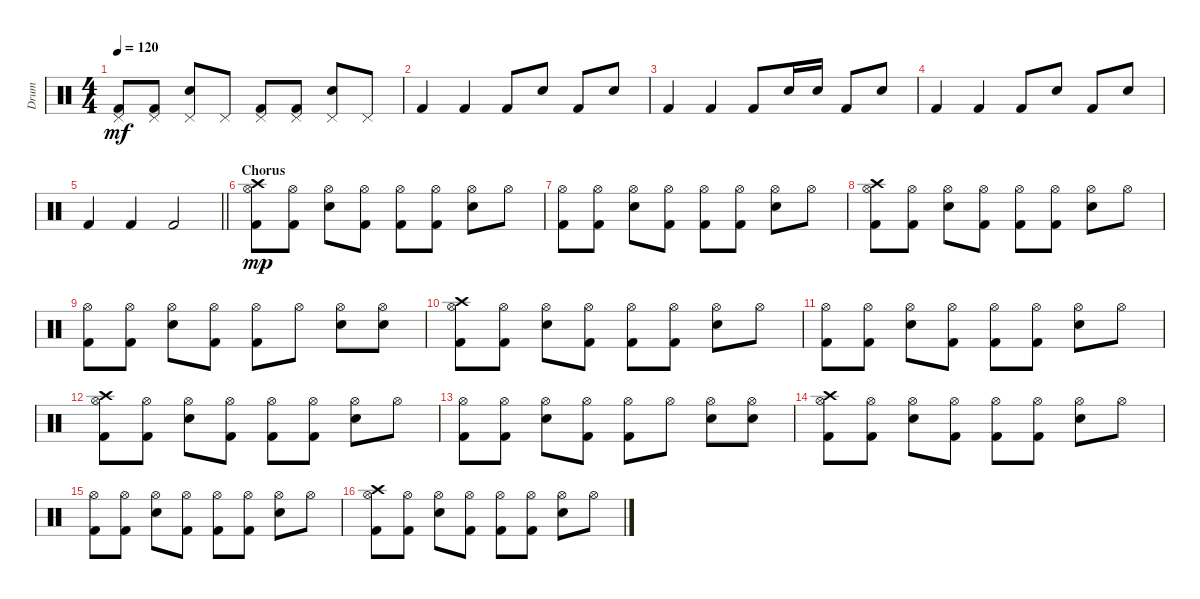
\track ("Drum" "Drum") {instrument percussion}
\staff {score}
\articulation defaults
\ts (4 4)
\tempo 120
\clef neutral
\ks c
("Pedal Hi-Hat (hit)" "Kick (hit) 2").8{dy mf} ("Pedal Hi-Hat (hit)" "Kick (hit) 2").8 ("Pedal Hi-Hat (hit)" "Snare (hit) 2").8 "Pedal Hi-Hat (hit)".8 ("Pedal Hi-Hat (hit)" "Kick (hit) 2").8 ("Pedal Hi-Hat (hit)" "Kick (hit) 2").8 ("Pedal Hi-Hat (hit)" "Snare (hit) 2").8 "Pedal Hi-Hat (hit)".8 |
"Kick (hit) 2".4 "Kick (hit) 2".4 "Kick (hit) 2".8 "Snare (hit) 2".8 "Kick (hit) 2".8 "Snare (hit) 2".8 |
"Kick (hit) 2".4 "Kick (hit) 2".4 "Kick (hit) 2".8 "Snare (hit) 2".16 "Snare (hit) 2".16 "Kick (hit) 2".8 "Snare (hit) 2".8 |
"Kick (hit) 2".4 "Kick (hit) 2".4 "Kick (hit) 2".8 "Snare (hit) 2".8 "Kick (hit) 2".8 "Snare (hit) 2".8 |
\barLineRight lightlight "Kick (hit) 2".4 "Kick (hit) 2".4 "Kick (hit) 2".2
|
\section ("" "Chorus")
("Hi-Hat (open)" "Crash high (hit)" "Kick (hit) 2").8{dy mp} ("Hi-Hat (open)" "Kick (hit) 2").8 ("Hi-Hat (open)" "Snare (hit) 2").8 ("Hi-Hat (open)" "Kick (hit) 2").8 ("Hi-Hat (open)" "Kick (hit) 2").8 ("Hi-Hat (open)" "Kick (hit) 2").8 ("Hi-Hat (open)" "Snare (hit) 2").8 "Hi-Hat (open)".8 |
("Hi-Hat (open)" "Kick (hit) 2").8 ("Hi-Hat (open)" "Kick (hit) 2").8 ("Hi-Hat (open)" "Snare (hit) 2").8 ("Hi-Hat (open)" "Kick (hit) 2").8 ("Hi-Hat (open)" "Kick (hit) 2").8 ("Hi-Hat (open)" "Kick (hit) 2").8 ("Hi-Hat (open)" "Snare (hit) 2").8 "Hi-Hat (open)".8 |
("Hi-Hat (open)" "Crash high (hit)" "Kick (hit) 2").8 ("Hi-Hat (open)" "Kick (hit) 2").8 ("Hi-Hat (open)" "Snare (hit) 2").8 ("Hi-Hat (open)" "Kick (hit) 2").8 ("Hi-Hat (open)" "Kick (hit) 2").8 ("Hi-Hat (open)" "Kick (hit) 2").8 ("Hi-Hat (open)" "Snare (hit) 2").8 "Hi-Hat (open)".8 |
("Hi-Hat (open)" "Kick (hit) 2").8 ("Hi-Hat (open)" "Kick (hit) 2").8 ("Hi-Hat (open)" "Snare (hit) 2").8 ("Hi-Hat (open)" "Kick (hit) 2").8 ("Hi-Hat (open)" "Kick (hit) 2").8 "Hi-Hat (open)".8 ("Hi-Hat (open)" "Snare (hit) 2").8 ("Hi-Hat (open)" "Snare (hit) 2").8 |
("Hi-Hat (open)" "Crash high (hit)" "Kick (hit) 2").8 ("Hi-Hat (open)" "Kick (hit) 2").8 ("Hi-Hat (open)" "Snare (hit) 2").8 ("Hi-Hat (open)" "Kick (hit) 2").8 ("Hi-Hat (open)" "Kick (hit) 2").8 ("Hi-Hat (open)" "Kick (hit) 2").8 ("Hi-Hat (open)" "Snare (hit) 2").8 "Hi-Hat (open)".8 |
("Hi-Hat (open)" "Kick (hit) 2").8 ("Hi-Hat (open)" "Kick (hit) 2").8 ("Hi-Hat (open)" "Snare (hit) 2").8 ("Hi-Hat (open)" "Kick (hit) 2").8 ("Hi-Hat (open)" "Kick (hit) 2").8 ("Hi-Hat (open)" "Kick (hit) 2").8 ("Hi-Hat (open)" "Snare (hit) 2").8 "Hi-Hat (open)".8 |
("Hi-Hat (open)" "Crash high (hit)" "Kick (hit) 2").8 ("Hi-Hat (open)" "Kick (hit) 2").8 ("Hi-Hat (open)" "Snare (hit) 2").8 ("Hi-Hat (open)" "Kick (hit) 2").8 ("Hi-Hat (open)" "Kick (hit) 2").8 ("Hi-Hat (open)" "Kick (hit) 2").8 ("Hi-Hat (open)" "Snare (hit) 2").8 "Hi-Hat (open)".8 |
("Hi-Hat (open)" "Kick (hit) 2").8 ("Hi-Hat (open)" "Kick (hit) 2").8 ("Hi-Hat (open)" "Snare (hit) 2").8 ("Hi-Hat (open)" "Kick (hit) 2").8 ("Hi-Hat (open)" "Kick (hit) 2").8 "Hi-Hat (open)".8 ("Hi-Hat (open)" "Snare (hit) 2").8 ("Hi-Hat (open)" "Snare (hit) 2").8 |
("Hi-Hat (open)" "Crash high (hit)" "Kick (hit) 2").8 ("Hi-Hat (open)" "Kick (hit) 2").8 ("Hi-Hat (open)" "Snare (hit) 2").8 ("Hi-Hat (open)" "Kick (hit) 2").8 ("Hi-Hat (open)" "Kick (hit) 2").8 ("Hi-Hat (open)" "Kick (hit) 2").8 ("Hi-Hat (open)" "Snare (hit) 2").8 "Hi-Hat (open)".8 |
("Hi-Hat (open)" "Kick (hit) 2").8 ("Hi-Hat (open)" "Kick (hit) 2").8 ("Hi-Hat (open)" "Snare (hit) 2").8 ("Hi-Hat (open)" "Kick (hit) 2").8 ("Hi-Hat (open)" "Kick (hit) 2").8 ("Hi-Hat (open)" "Kick (hit) 2").8 ("Hi-Hat (open)" "Snare (hit) 2").8 "Hi-Hat (open)".8 |
("Hi-Hat (open)" "Crash high (hit)" "Kick (hit) 2").8 ("Hi-Hat (open)" "Kick (hit) 2").8 ("Hi-Hat (open)" "Snare (hit) 2").8 ("Hi-Hat (open)" "Kick (hit) 2").8 ("Hi-Hat (open)" "Kick (hit) 2").8 ("Hi-Hat (open)" "Kick (hit) 2").8 ("Hi-Hat (open)" "Snare (hit) 2").8 "Hi-Hat (open)".8
